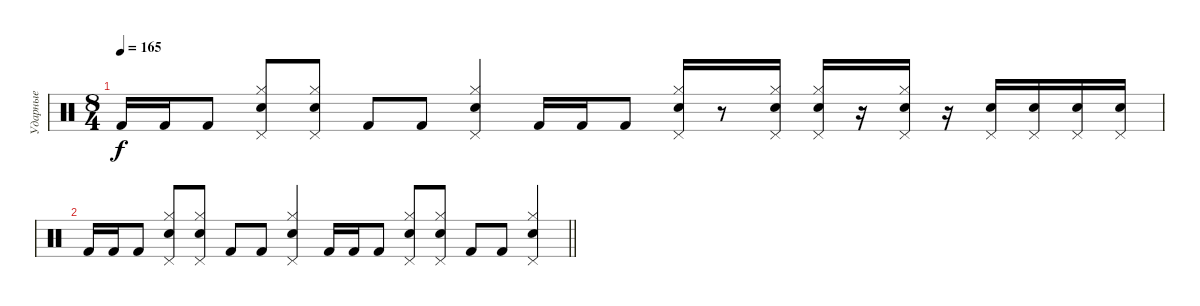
\track ("Ударные" "Ударные") {instrument percussion}
\staff {score}
\articulation defaults
\ts (8 4)
\tempo 165
\clef neutral
\ks c "Kick (hit) 2".16{dy f} "Kick (hit) 2".16 "Kick (hit) 2".8
("Electric Snare (hit)" "Hi-Hat (closed)" "Pedal Hi-Hat (hit)").8 ("Electric Snare (hit)" "Hi-Hat (closed)" "Pedal Hi-Hat (hit)").8 "Kick (hit) 2".8 "Kick (hit) 2".8 ("Electric Snare (hit)" "Hi-Hat (closed)" "Pedal Hi-Hat (hit)").4 "Kick (hit) 2".16 "Kick (hit) 2".16 "Kick (hit) 2".8 ("Electric Snare (hit)" "Hi-Hat (closed)" "Pedal Hi-Hat (hit)").16 r.8 ("Electric Snare (hit)" "Hi-Hat (closed)" "Pedal Hi-Hat (hit)").16 ("Electric Snare (hit)" "Hi-Hat (closed)" "Pedal Hi-Hat (hit)").16 r.16 ("Electric Snare (hit)" "Hi-Hat (closed)" "Pedal Hi-Hat (hit)").16 r.16 ("Electric Snare (hit)" "Pedal Hi-Hat (hit)").16 ("Electric Snare (hit)" "Pedal Hi-Hat (hit)").16 ("Electric Snare (hit)" "Pedal Hi-Hat (hit)").16 ("Electric Snare (hit)" "Pedal Hi-Hat (hit)").16 |
\barLineRight lightlight "Kick (hit) 2".16 "Kick (hit) 2".16 "Kick (hit) 2".8
("Electric Snare (hit)" "Hi-Hat (closed)" "Pedal Hi-Hat (hit)").8 ("Electric Snare (hit)" "Hi-Hat (closed)" "Pedal Hi-Hat (hit)").8 "Kick (hit) 2".8 "Kick (hit) 2".8 ("Electric Snare (hit)" "Hi-Hat (closed)" "Pedal Hi-Hat (hit)").4 "Kick (hit) 2".16 "Kick (hit) 2".16 "Kick (hit) 2".8 ("Electric Snare (hit)" "Hi-Hat (closed)" "Pedal Hi-Hat (hit)").8 ("Electric Snare (hit)" "Hi-Hat (closed)" "Pedal Hi-Hat (hit)").8 "Kick (hit) 2".8 "Kick (hit) 2".8 ("Electric Snare (hit)" "Hi-Hat (closed)" "Pedal Hi-Hat (hit)").4
